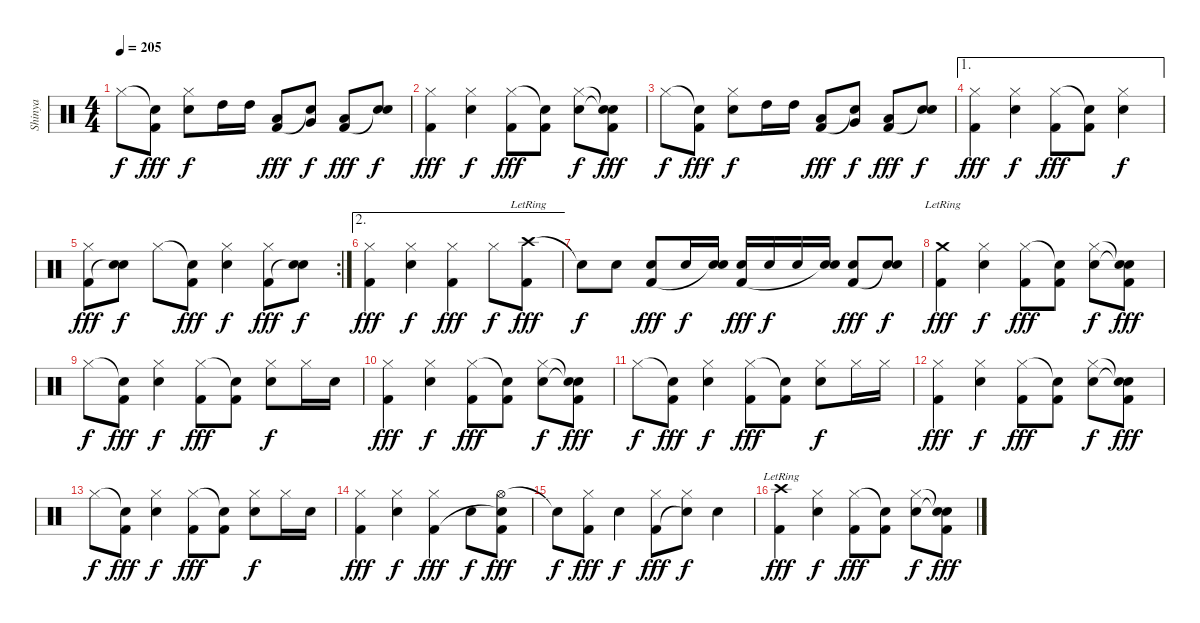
\track ("Shinya" "Shinya") {instrument percussion}
\staff {score}
\articulation defaults
\ts (4 4)
\tempo 205
\clef neutral
\ks c "Hi-Hat (closed)".8{dy f}
("Snare (hit)"{t} "Kick (hit) 2").8{dy fff} ("Hi-Hat (closed)" "Electric Snare (hit)").8{dy f} "High Tom (hit)".16 "High Tom (hit)".16 ("Low Tom (hit)" "Kick (hit) 2").8{dy fff} ("Very Low Tom (hit)" "Snare (hit)"{t}).8{dy f} ("Low Floor Tom (hit)" "Kick (hit) 2").8{dy fff} ("Electric Snare (hit)" "Snare (hit)"{t}).8{dy f} |
("Hi-Hat (closed)" "Kick (hit) 2").4{dy fff} ("Hi-Hat (closed)" "Electric Snare (hit)").4{dy f} ("Hi-Hat (closed)" "Kick (hit) 2").8{dy fff} ("Snare (hit)"{t} "Kick (hit) 2").8 ("Hi-Hat (closed)" "Electric Snare (hit)").8{dy f} ("Snare (hit)"{t} "Snare (hit)"{t} "Kick (hit) 2").8{dy fff} |
"Hi-Hat (closed)".8{dy f} ("Snare (hit)"{t} "Kick (hit) 2").8{dy fff} ("Hi-Hat (closed)" "Electric Snare (hit)").8{dy f} "High Tom (hit)".16 "High Tom (hit)".16 ("Low Tom (hit)" "Kick (hit) 2").8{dy fff} ("Very Low Tom (hit)" "Snare (hit)"{t}).8{dy f} ("Low Floor Tom (hit)" "Kick (hit) 2").8{dy fff} ("Electric Snare (hit)" "Snare (hit)"{t}).8{dy f} |
\ae 1
("Hi-Hat (closed)" "Kick (hit) 2").4{dy fff} ("Hi-Hat (closed)" "Electric Snare (hit)").4{dy f} ("Hi-Hat (closed)" "Kick (hit) 2").8{dy fff} ("Snare (hit)"{t} "Kick (hit) 2").8 ("Hi-Hat (closed)" "Electric Snare (hit)").4{dy f} |
\rc 2
("Hi-Hat (closed)" "Kick (hit) 2").8{dy fff} ("Electric Snare (hit)" "Snare (hit)"{t}).8{dy f} "Hi-Hat (closed)".8 ("Snare (hit)"{t} "Kick (hit) 2").8{dy fff} ("Hi-Hat (closed)" "Electric Snare (hit)").4{dy f} ("Hi-Hat (closed)" "Kick (hit) 2").8{dy fff} ("Electric Snare (hit)" "Snare (hit)"{t}).8{dy f} |
\ae 2
("Hi-Hat (closed)" "Kick (hit) 2").4{dy fff} ("Hi-Hat (closed)" "Electric Snare (hit)").4{dy f} ("Hi-Hat (closed)" "Kick (hit) 2").4{dy fff} "Hi-Hat (closed)".8{dy f} ("Crash high (hit)"{lr} "Kick (hit) 2").8{dy fff} |
"Snare (hit)"{t}.8{dy f} "Electric Snare (hit)".8 ("Electric Snare (hit)" "Kick (hit) 2").8{dy fff} "Electric Snare (hit)".16{dy f} ("Electric Snare (hit)" "Snare (hit)"{t}).16 ("Electric Snare (hit)" "Kick (hit) 2").16{dy fff} "Electric Snare (hit)".16{dy f} "Electric Snare (hit)".16 ("Electric Snare (hit)" "Snare (hit)"{t}).16 ("Electric Snare (hit)" "Kick (hit) 2").8{dy fff} ("Electric Snare (hit)" "Snare (hit)"{t}).8{dy f} |
("Crash medium (hit)"{lr} "Kick (hit) 2").4{dy fff} ("Hi-Hat (closed)" "Electric Snare (hit)").4{dy f} ("Hi-Hat (closed)" "Kick (hit) 2").8{dy fff} ("Snare (hit)"{t} "Kick (hit) 2").8 ("Hi-Hat (closed)" "Electric Snare (hit)").8{dy f} ("Snare (hit)"{t} "Snare (hit)"{t} "Kick (hit) 2").8{dy fff} |
"Hi-Hat (closed)".8{dy f} ("Snare (hit)"{t} "Kick (hit) 2").8{dy fff} ("Hi-Hat (closed)" "Electric Snare (hit)").4{dy f} ("Hi-Hat (closed)" "Kick (hit) 2").8{dy fff} ("Snare (hit)"{t} "Kick (hit) 2").8 ("Hi-Hat (closed)" "Electric Snare (hit)").8{dy f} "Hi-Hat (closed)".16 "Electric Snare (hit)".16 |
("Hi-Hat (closed)" "Kick (hit) 2").4{dy fff} ("Hi-Hat (closed)" "Electric Snare (hit)").4{dy f} ("Hi-Hat (closed)" "Kick (hit) 2").8{dy fff} ("Snare (hit)"{t} "Kick (hit) 2").8 ("Hi-Hat (closed)" "Electric Snare (hit)").8{dy f} ("Snare (hit)"{t} "Snare (hit)"{t} "Kick (hit) 2").8{dy fff} |
"Hi-Hat (closed)".8{dy f} ("Snare (hit)"{t} "Kick (hit) 2").8{dy fff} ("Hi-Hat (closed)" "Electric Snare (hit)").4{dy f} ("Hi-Hat (closed)" "Kick (hit) 2").8{dy fff} ("Snare (hit)"{t} "Kick (hit) 2").8 ("Hi-Hat (closed)" "Electric Snare (hit)").8{dy f} "Hi-Hat (closed)".16 "Hi-Hat (closed)".16 |
("Hi-Hat (closed)" "Kick (hit) 2").4{dy fff} ("Hi-Hat (closed)" "Electric Snare (hit)").4{dy f} ("Hi-Hat (closed)" "Kick (hit) 2").8{dy fff} ("Snare (hit)"{t} "Kick (hit) 2").8 ("Hi-Hat (closed)" "Electric Snare (hit)").8{dy f} ("Snare (hit)"{t} "Snare (hit)"{t} "Kick (hit) 2").8{dy fff} |
"Hi-Hat (closed)".8{dy f} ("Snare (hit)"{t} "Kick (hit) 2").8{dy fff} ("Hi-Hat (closed)" "Electric Snare (hit)").4{dy f} ("Hi-Hat (closed)" "Kick (hit) 2").8{dy fff} ("Snare (hit)"{t} "Kick (hit) 2").8 ("Hi-Hat (closed)" "Electric Snare (hit)").8{dy f} "Hi-Hat (closed)".16 "Electric Snare (hit)".16 |
("Hi-Hat (closed)" "Kick (hit) 2").4{dy fff} ("Hi-Hat (closed)" "Electric Snare (hit)").4{dy f} ("Hi-Hat (closed)" "Kick (hit) 2").4{dy fff} "Electric Snare (hit)".8{dy f} ("Hi-Hat (open)" "Snare (hit)"{t} "Kick (hit) 2").8{dy fff} |
"Snare (hit)"{t}.8{dy f} ("Hi-Hat (closed)" "Kick (hit) 2").8{dy fff} "Electric Snare (hit)".4{dy f} ("Hi-Hat (closed)" "Kick (hit) 2").8{dy fff} ("Hi-Hat (closed)" "Snare (hit)"{t}).8{dy f} "Electric Snare (hit)".4 |
("Crash high (hit)"{lr} "Kick (hit) 2").4{dy fff} ("Hi-Hat (closed)" "Electric Snare (hit)").4{dy f} ("Hi-Hat (closed)" "Kick (hit) 2").8{dy fff} ("Snare (hit)"{t} "Kick (hit) 2").8 ("Hi-Hat (closed)" "Electric Snare (hit)").8{dy f} ("Snare (hit)"{t} "Snare (hit)"{t} "Kick (hit) 2").8{dy fff}
